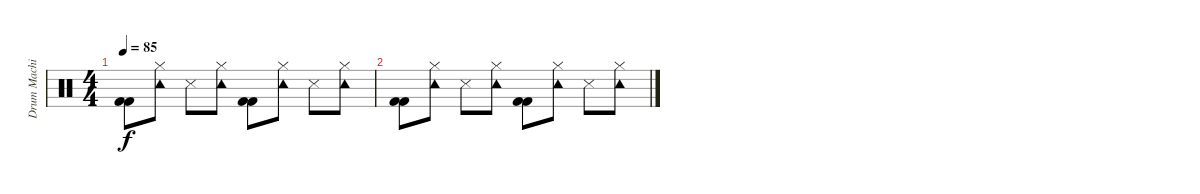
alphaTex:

\track ("Drum Machine" "Drum Machi") {instrument percussion}
\staff {score}
\articulation defaults
\ts (4 4)
\tempo 85
\clef neutral
\ks c
("Kick (hit) 2" "Kick (hit) 2").8{dy f} ("Hi-Hat (closed)" "Tambourine (hit)").8 "Snare (side stick) 3".8 ("Hi-Hat (closed)" "Tambourine (hit)").8 ("Kick (hit) 2" "Kick (hit) 2").8 ("Hi-Hat (closed)" "Tambourine (hit)").8 "Snare (side stick) 3".8 ("Hi-Hat (closed)" "Tambourine (hit)").8 |
("Kick (hit) 2" "Kick (hit) 2").8 ("Hi-Hat (closed)" "Tambourine (hit)").8 "Snare (side stick) 3".8 ("Hi-Hat (closed)" "Tambourine (hit)").8 ("Kick (hit) 2" "Kick (hit) 2").8 ("Hi-Hat (closed)" "Tambourine (hit)").8 "Snare (side stick) 3".8 ("Hi-Hat (closed)" "Tambourine (hit)").8
